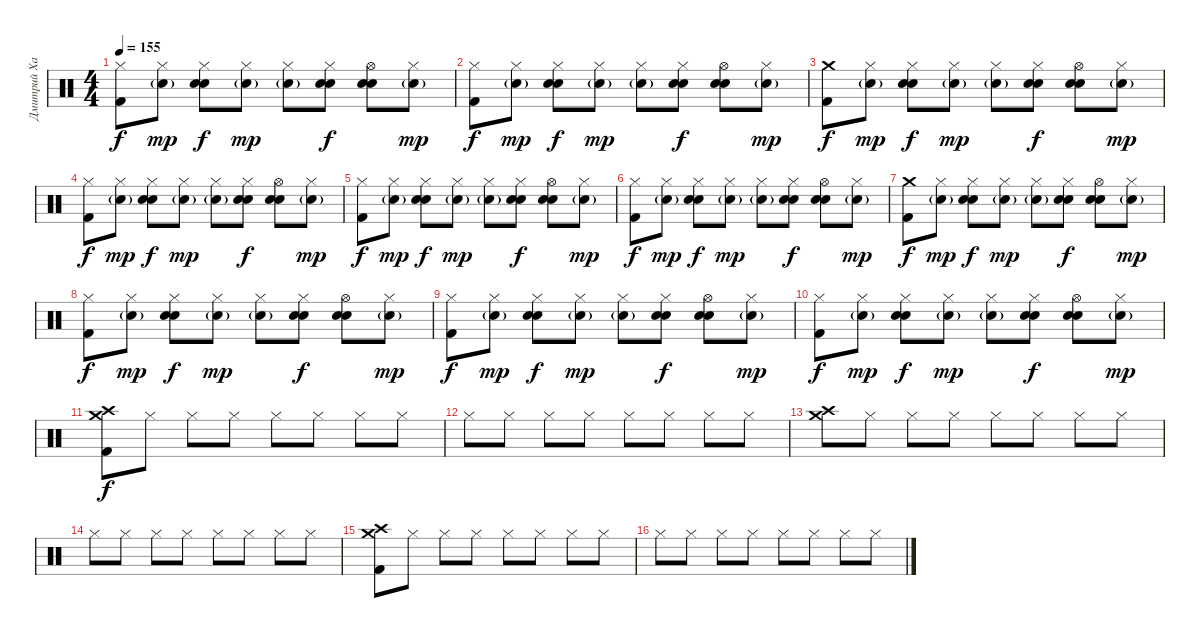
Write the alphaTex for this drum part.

\track ("Дмитрий Хакимов" "Дмитрий Ха") {instrument percussion}
\staff {score}
\articulation defaults
\ts (4 4)
\tempo 155
\clef neutral
\ks c
("Hi-Hat (closed)" "Kick (hit) 2").8{dy f} ("Hi-Hat (closed)" "Electric Snare (hit)"{g}).8{dy mp} ("Hi-Hat (closed)" "Electric Snare (hit)" "Hand Clap (hit)").8{dy f} ("Hi-Hat (closed)" "Electric Snare (hit)"{g}).8{dy mp} ("Hi-Hat (closed)" "Electric Snare (hit)"{g}).8 ("Hi-Hat (closed)" "Electric Snare (hit)" "Hand Clap (hit)").8{dy f} ("Hi-Hat (open)" "Electric Snare (hit)" "Hand Clap (hit)").8 ("Hi-Hat (closed)" "Electric Snare (hit)"{g}).8{dy mp} |
("Hi-Hat (closed)" "Kick (hit) 2").8{dy f} ("Hi-Hat (closed)" "Electric Snare (hit)"{g}).8{dy mp} ("Hi-Hat (closed)" "Electric Snare (hit)" "Hand Clap (hit)").8{dy f} ("Hi-Hat (closed)" "Electric Snare (hit)"{g}).8{dy mp} ("Hi-Hat (closed)" "Electric Snare (hit)"{g}).8 ("Hi-Hat (closed)" "Electric Snare (hit)" "Hand Clap (hit)").8{dy f} ("Hi-Hat (open)" "Electric Snare (hit)" "Hand Clap (hit)").8 ("Hi-Hat (closed)" "Electric Snare (hit)"{g}).8{dy mp} |
("Crash medium (hit)" "Kick (hit) 2").8{dy f} ("Hi-Hat (closed)" "Electric Snare (hit)"{g}).8{dy mp} ("Hi-Hat (closed)" "Electric Snare (hit)" "Hand Clap (hit)").8{dy f} ("Hi-Hat (closed)" "Electric Snare (hit)"{g}).8{dy mp} ("Hi-Hat (closed)" "Electric Snare (hit)"{g}).8 ("Hi-Hat (closed)" "Electric Snare (hit)" "Hand Clap (hit)").8{dy f} ("Hi-Hat (open)" "Electric Snare (hit)" "Hand Clap (hit)").8 ("Hi-Hat (closed)" "Electric Snare (hit)"{g}).8{dy mp} |
("Hi-Hat (closed)" "Kick (hit) 2").8{dy f} ("Hi-Hat (closed)" "Electric Snare (hit)"{g}).8{dy mp} ("Hi-Hat (closed)" "Electric Snare (hit)" "Hand Clap (hit)").8{dy f} ("Hi-Hat (closed)" "Electric Snare (hit)"{g}).8{dy mp} ("Hi-Hat (closed)" "Electric Snare (hit)"{g}).8 ("Hi-Hat (closed)" "Electric Snare (hit)" "Hand Clap (hit)").8{dy f} ("Hi-Hat (open)" "Electric Snare (hit)" "Hand Clap (hit)").8 ("Hi-Hat (closed)" "Electric Snare (hit)"{g}).8{dy mp} |
("Hi-Hat (closed)" "Kick (hit) 2").8{dy f} ("Hi-Hat (closed)" "Electric Snare (hit)"{g}).8{dy mp} ("Hi-Hat (closed)" "Electric Snare (hit)" "Hand Clap (hit)").8{dy f} ("Hi-Hat (closed)" "Electric Snare (hit)"{g}).8{dy mp} ("Hi-Hat (closed)" "Electric Snare (hit)"{g}).8 ("Hi-Hat (closed)" "Electric Snare (hit)" "Hand Clap (hit)").8{dy f} ("Hi-Hat (open)" "Electric Snare (hit)" "Hand Clap (hit)").8 ("Hi-Hat (closed)" "Electric Snare (hit)"{g}).8{dy mp} |
("Hi-Hat (closed)" "Kick (hit) 2").8{dy f} ("Hi-Hat (closed)" "Electric Snare (hit)"{g}).8{dy mp} ("Hi-Hat (closed)" "Electric Snare (hit)" "Hand Clap (hit)").8{dy f} ("Hi-Hat (closed)" "Electric Snare (hit)"{g}).8{dy mp} ("Hi-Hat (closed)" "Electric Snare (hit)"{g}).8 ("Hi-Hat (closed)" "Electric Snare (hit)" "Hand Clap (hit)").8{dy f} ("Hi-Hat (open)" "Electric Snare (hit)" "Hand Clap (hit)").8 ("Hi-Hat (closed)" "Electric Snare (hit)"{g}).8{dy mp} |
("Crash medium (hit)" "Kick (hit) 2").8{dy f} ("Hi-Hat (closed)" "Electric Snare (hit)"{g}).8{dy mp} ("Hi-Hat (closed)" "Electric Snare (hit)" "Hand Clap (hit)").8{dy f} ("Hi-Hat (closed)" "Electric Snare (hit)"{g}).8{dy mp} ("Hi-Hat (closed)" "Electric Snare (hit)"{g}).8 ("Hi-Hat (closed)" "Electric Snare (hit)" "Hand Clap (hit)").8{dy f} ("Hi-Hat (open)" "Electric Snare (hit)" "Hand Clap (hit)").8 ("Hi-Hat (closed)" "Electric Snare (hit)"{g}).8{dy mp} |
("Hi-Hat (closed)" "Kick (hit) 2").8{dy f} ("Hi-Hat (closed)" "Electric Snare (hit)"{g}).8{dy mp} ("Hi-Hat (closed)" "Electric Snare (hit)" "Hand Clap (hit)").8{dy f} ("Hi-Hat (closed)" "Electric Snare (hit)"{g}).8{dy mp} ("Hi-Hat (closed)" "Electric Snare (hit)"{g}).8 ("Hi-Hat (closed)" "Electric Snare (hit)" "Hand Clap (hit)").8{dy f} ("Hi-Hat (open)" "Electric Snare (hit)" "Hand Clap (hit)").8 ("Hi-Hat (closed)" "Electric Snare (hit)"{g}).8{dy mp} |
("Hi-Hat (closed)" "Kick (hit) 2").8{dy f} ("Hi-Hat (closed)" "Electric Snare (hit)"{g}).8{dy mp} ("Hi-Hat (closed)" "Electric Snare (hit)" "Hand Clap (hit)").8{dy f} ("Hi-Hat (closed)" "Electric Snare (hit)"{g}).8{dy mp} ("Hi-Hat (closed)" "Electric Snare (hit)"{g}).8 ("Hi-Hat (closed)" "Electric Snare (hit)" "Hand Clap (hit)").8{dy f} ("Hi-Hat (open)" "Electric Snare (hit)" "Hand Clap (hit)").8 ("Hi-Hat (closed)" "Electric Snare (hit)"{g}).8{dy mp} |
("Hi-Hat (closed)" "Kick (hit) 2").8{dy f} ("Hi-Hat (closed)" "Electric Snare (hit)"{g}).8{dy mp} ("Hi-Hat (closed)" "Electric Snare (hit)" "Hand Clap (hit)").8{dy f} ("Hi-Hat (closed)" "Electric Snare (hit)"{g}).8{dy mp} ("Hi-Hat (closed)" "Electric Snare (hit)"{g}).8 ("Hi-Hat (closed)" "Electric Snare (hit)" "Hand Clap (hit)").8{dy f} ("Hi-Hat (open)" "Electric Snare (hit)" "Hand Clap (hit)").8 ("Hi-Hat (closed)" "Electric Snare (hit)"{g}).8{dy mp} |
("Crash medium (hit)" "Crash high (hit)" "Kick (hit) 2").8{dy f} "Hi-Hat (closed)".8 "Hi-Hat (closed)".8 "Hi-Hat (closed)".8 "Hi-Hat (closed)".8 "Hi-Hat (closed)".8 "Hi-Hat (closed)".8 "Hi-Hat (closed)".8 |
"Hi-Hat (closed)".8 "Hi-Hat (closed)".8 "Hi-Hat (closed)".8 "Hi-Hat (closed)".8 "Hi-Hat (closed)".8 "Hi-Hat (closed)".8 "Hi-Hat (closed)".8 "Hi-Hat (closed)".8 |
("Crash medium (hit)" "Crash high (hit)").8 "Hi-Hat (closed)".8 "Hi-Hat (closed)".8 "Hi-Hat (closed)".8 "Hi-Hat (closed)".8 "Hi-Hat (closed)".8 "Hi-Hat (closed)".8 "Hi-Hat (closed)".8 |
"Hi-Hat (closed)".8 "Hi-Hat (closed)".8 "Hi-Hat (closed)".8 "Hi-Hat (closed)".8 "Hi-Hat (closed)".8 "Hi-Hat (closed)".8 "Hi-Hat (closed)".8 "Hi-Hat (closed)".8 |
("Crash medium (hit)" "Crash high (hit)" "Kick (hit) 2").8 "Hi-Hat (closed)".8 "Hi-Hat (closed)".8 "Hi-Hat (closed)".8 "Hi-Hat (closed)".8 "Hi-Hat (closed)".8 "Hi-Hat (closed)".8 "Hi-Hat (closed)".8 |
"Hi-Hat (closed)".8 "Hi-Hat (closed)".8 "Hi-Hat (closed)".8 "Hi-Hat (closed)".8 "Hi-Hat (closed)".8 "Hi-Hat (closed)".8 "Hi-Hat (closed)".8 "Hi-Hat (closed)".8
